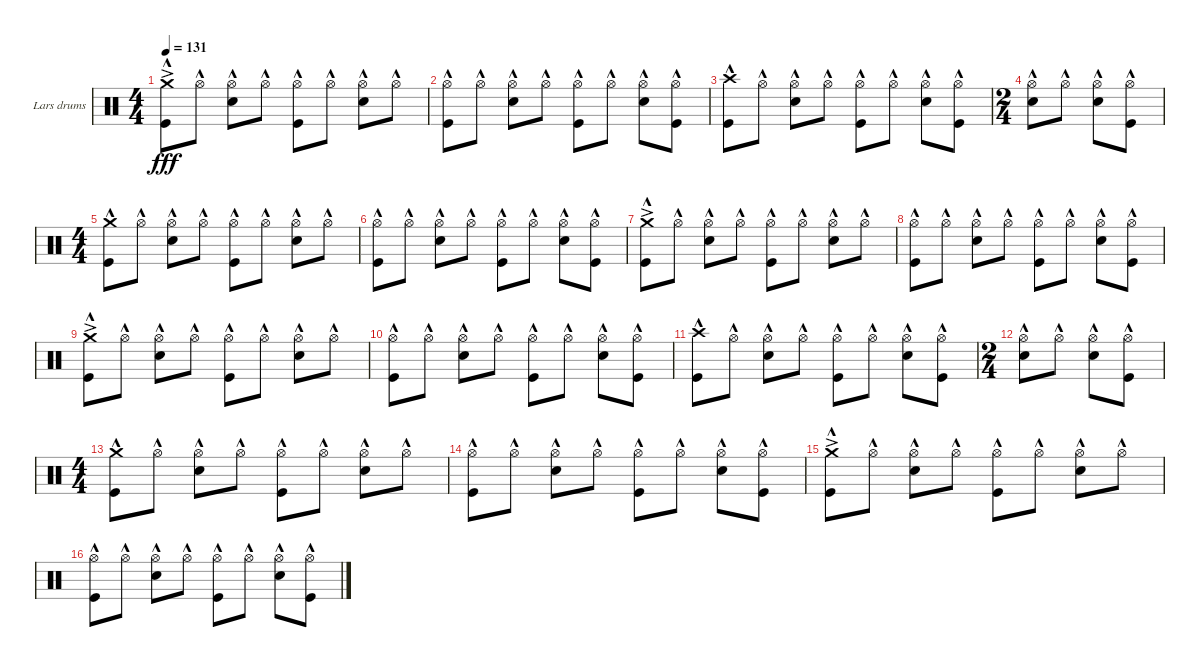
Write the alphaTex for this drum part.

\defaultSystemsLayout 4
\bracketExtendMode groupsimilarinstruments
\firstSystemTrackNameOrientation horizontal
\otherSystemsTrackNameOrientation horizontal
\track ("Lars drums" "Lars drums") {instrument percussion}
\staff {score}
\articulation defaults
\ts (4 4)
\tempo 131
\clef neutral
\ks c
("Crash medium (hit)"{ac} "Kick (hit)"{hac}).8{dy fff} "Hi-Hat (open)"{hac}.8 ("Hi-Hat (open)"{hac} "Snare (hit) 2"{hac}).8 "Hi-Hat (open)"{hac}.8 ("Hi-Hat (open)"{hac} "Kick (hit)"{hac}).8 "Hi-Hat (open)"{hac}.8 ("Hi-Hat (open)"{hac} "Snare (hit) 2"{hac}).8 "Hi-Hat (open)"{hac}.8 |
("Hi-Hat (open)"{hac} "Kick (hit)"{hac}).8 "Hi-Hat (open)"{hac}.8 ("Hi-Hat (open)"{hac} "Snare (hit) 2"{hac}).8 "Hi-Hat (open)"{hac}.8 ("Hi-Hat (open)"{hac} "Kick (hit)"{hac}).8 "Hi-Hat (open)"{hac}.8 ("Hi-Hat (open)"{hac} "Snare (hit) 2"{hac}).8 ("Hi-Hat (open)"{hac} "Kick (hit)"{hac}).8 |
("Crash high (hit)"{hac} "Kick (hit)"{hac}).8 "Hi-Hat (open)"{hac}.8 ("Hi-Hat (open)"{hac} "Snare (hit) 2"{hac}).8 "Hi-Hat (open)"{hac}.8 ("Hi-Hat (open)"{hac} "Kick (hit)"{hac}).8 "Hi-Hat (open)"{hac}.8 ("Hi-Hat (open)"{hac} "Snare (hit) 2"{hac}).8 ("Hi-Hat (open)"{hac} "Kick (hit)"{hac}).8 |
\ts (2 4)
("Hi-Hat (open)"{hac} "Snare (hit) 2"{hac}).8 "Hi-Hat (open)"{hac}.8 ("Hi-Hat (open)"{hac} "Snare (hit) 2"{hac}).8 ("Hi-Hat (open)"{hac} "Kick (hit)"{hac}).8 |
\ts (4 4)
("Crash medium (hit)"{hac} "Kick (hit)"{hac}).8 "Hi-Hat (open)"{hac}.8 ("Hi-Hat (open)"{hac} "Snare (hit) 2"{hac}).8 "Hi-Hat (open)"{hac}.8 ("Hi-Hat (open)"{hac} "Kick (hit)"{hac}).8 "Hi-Hat (open)"{hac}.8 ("Hi-Hat (open)"{hac} "Snare (hit) 2"{hac}).8 "Hi-Hat (open)"{hac}.8 |
("Hi-Hat (open)"{hac} "Kick (hit)"{hac}).8 "Hi-Hat (open)"{hac}.8 ("Hi-Hat (open)"{hac} "Snare (hit) 2"{hac}).8 "Hi-Hat (open)"{hac}.8 ("Hi-Hat (open)"{hac} "Kick (hit)"{hac}).8 "Hi-Hat (open)"{hac}.8 ("Hi-Hat (open)"{hac} "Snare (hit) 2"{hac}).8 ("Hi-Hat (open)"{hac} "Kick (hit)"{hac}).8 |
("Crash medium (hit)"{ac} "Kick (hit)"{hac}).8 "Hi-Hat (open)"{hac}.8 ("Hi-Hat (open)"{hac} "Snare (hit) 2"{hac}).8 "Hi-Hat (open)"{hac}.8 ("Hi-Hat (open)"{hac} "Kick (hit)"{hac}).8 "Hi-Hat (open)"{hac}.8 ("Hi-Hat (open)"{hac} "Snare (hit) 2"{hac}).8 "Hi-Hat (open)"{hac}.8 |
("Hi-Hat (open)"{hac} "Kick (hit)"{hac}).8 "Hi-Hat (open)"{hac}.8 ("Hi-Hat (open)"{hac} "Snare (hit) 2"{hac}).8 "Hi-Hat (open)"{hac}.8 ("Hi-Hat (open)"{hac} "Kick (hit)"{hac}).8 "Hi-Hat (open)"{hac}.8 ("Hi-Hat (open)"{hac} "Snare (hit) 2"{hac}).8 ("Hi-Hat (open)"{hac} "Kick (hit)"{hac}).8 |
("Crash medium (hit)"{ac} "Kick (hit)"{hac}).8 "Hi-Hat (open)"{hac}.8 ("Hi-Hat (open)"{hac} "Snare (hit) 2"{hac}).8 "Hi-Hat (open)"{hac}.8 ("Hi-Hat (open)"{hac} "Kick (hit)"{hac}).8 "Hi-Hat (open)"{hac}.8 ("Hi-Hat (open)"{hac} "Snare (hit) 2"{hac}).8 "Hi-Hat (open)"{hac}.8 |
("Hi-Hat (open)"{hac} "Kick (hit)"{hac}).8 "Hi-Hat (open)"{hac}.8 ("Hi-Hat (open)"{hac} "Snare (hit) 2"{hac}).8 "Hi-Hat (open)"{hac}.8 ("Hi-Hat (open)"{hac} "Kick (hit)"{hac}).8 "Hi-Hat (open)"{hac}.8 ("Hi-Hat (open)"{hac} "Snare (hit) 2"{hac}).8 ("Hi-Hat (open)"{hac} "Kick (hit)"{hac}).8 |
("Crash high (hit)"{hac} "Kick (hit)"{hac}).8 "Hi-Hat (open)"{hac}.8 ("Hi-Hat (open)"{hac} "Snare (hit) 2"{hac}).8 "Hi-Hat (open)"{hac}.8 ("Hi-Hat (open)"{hac} "Kick (hit)"{hac}).8 "Hi-Hat (open)"{hac}.8 ("Hi-Hat (open)"{hac} "Snare (hit) 2"{hac}).8 ("Hi-Hat (open)"{hac} "Kick (hit)"{hac}).8 |
\ts (2 4)
("Hi-Hat (open)"{hac} "Snare (hit) 2"{hac}).8 "Hi-Hat (open)"{hac}.8 ("Hi-Hat (open)"{hac} "Snare (hit) 2"{hac}).8 ("Hi-Hat (open)"{hac} "Kick (hit)"{hac}).8 |
\ts (4 4)
("Crash medium (hit)"{hac} "Kick (hit)"{hac}).8 "Hi-Hat (open)"{hac}.8 ("Hi-Hat (open)"{hac} "Snare (hit) 2"{hac}).8 "Hi-Hat (open)"{hac}.8 ("Hi-Hat (open)"{hac} "Kick (hit)"{hac}).8 "Hi-Hat (open)"{hac}.8 ("Hi-Hat (open)"{hac} "Snare (hit) 2"{hac}).8 "Hi-Hat (open)"{hac}.8 |
("Hi-Hat (open)"{hac} "Kick (hit)"{hac}).8 "Hi-Hat (open)"{hac}.8 ("Hi-Hat (open)"{hac} "Snare (hit) 2"{hac}).8 "Hi-Hat (open)"{hac}.8 ("Hi-Hat (open)"{hac} "Kick (hit)"{hac}).8 "Hi-Hat (open)"{hac}.8 ("Hi-Hat (open)"{hac} "Snare (hit) 2"{hac}).8 ("Hi-Hat (open)"{hac} "Kick (hit)"{hac}).8 |
("Crash medium (hit)"{ac} "Kick (hit)"{hac}).8 "Hi-Hat (open)"{hac}.8 ("Hi-Hat (open)"{hac} "Snare (hit) 2"{hac}).8 "Hi-Hat (open)"{hac}.8 ("Hi-Hat (open)"{hac} "Kick (hit)"{hac}).8 "Hi-Hat (open)"{hac}.8 ("Hi-Hat (open)"{hac} "Snare (hit) 2"{hac}).8 "Hi-Hat (open)"{hac}.8 |
("Hi-Hat (open)"{hac} "Kick (hit)"{hac}).8 "Hi-Hat (open)"{hac}.8 ("Hi-Hat (open)"{hac} "Snare (hit) 2"{hac}).8 "Hi-Hat (open)"{hac}.8 ("Hi-Hat (open)"{hac} "Kick (hit)"{hac}).8 "Hi-Hat (open)"{hac}.8 ("Hi-Hat (open)"{hac} "Snare (hit) 2"{hac}).8 ("Hi-Hat (open)"{hac} "Kick (hit)"{hac}).8
